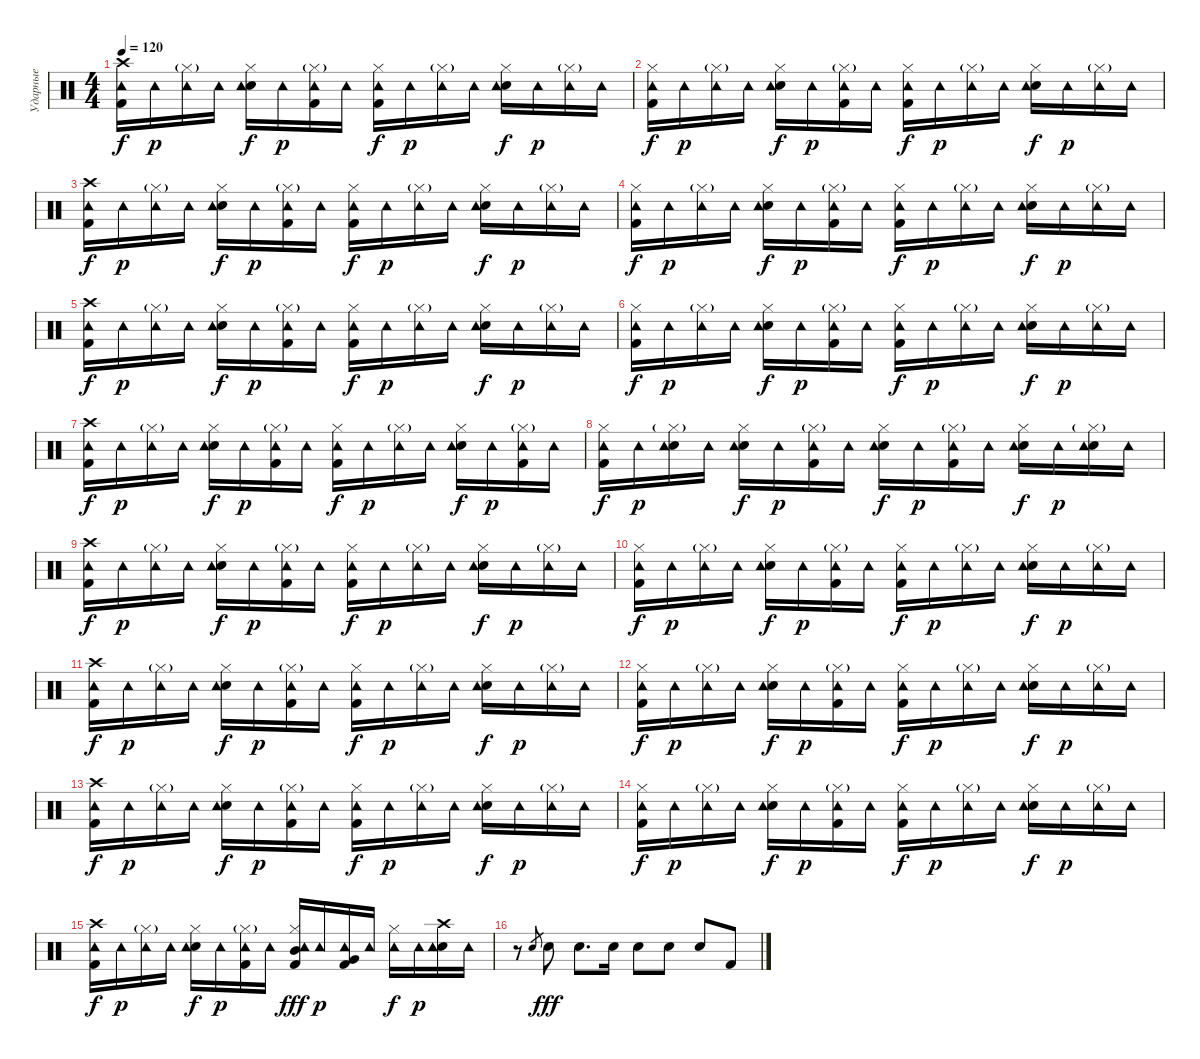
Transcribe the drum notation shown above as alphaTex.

\track ("Ударные" "Ударные") {instrument percussion}
\staff {score}
\articulation defaults
\ts (4 4)
\tempo 120
\clef neutral
\ks c
("Kick (hit) 2" "Crash high (hit)" "Tambourine (hit)").16{dy f} "Tambourine (hit)".16{dy p} ("Hi-Hat (closed)"{g} "Tambourine (hit)").16 "Tambourine (hit)".16 ("Electric Snare (hit)" "Hi-Hat (closed)" "Tambourine (hit)").16{dy f} "Tambourine (hit)".16{dy p} ("Kick (hit) 2" "Hi-Hat (closed)"{g} "Tambourine (hit)").16 "Tambourine (hit)".16 ("Kick (hit) 2" "Hi-Hat (closed)" "Tambourine (hit)").16{dy f} "Tambourine (hit)".16{dy p} ("Hi-Hat (closed)"{g} "Tambourine (hit)").16 "Tambourine (hit)".16 ("Electric Snare (hit)" "Hi-Hat (closed)" "Tambourine (hit)").16{dy f} "Tambourine (hit)".16{dy p} ("Hi-Hat (closed)"{g} "Tambourine (hit)").16 "Tambourine (hit)".16 |
("Kick (hit) 2" "Hi-Hat (closed)" "Tambourine (hit)").16{dy f} "Tambourine (hit)".16{dy p} ("Hi-Hat (closed)"{g} "Tambourine (hit)").16 "Tambourine (hit)".16 ("Electric Snare (hit)" "Hi-Hat (closed)" "Tambourine (hit)").16{dy f} "Tambourine (hit)".16{dy p} ("Kick (hit) 2" "Hi-Hat (closed)"{g} "Tambourine (hit)").16 "Tambourine (hit)".16 ("Kick (hit) 2" "Hi-Hat (closed)" "Tambourine (hit)").16{dy f} "Tambourine (hit)".16{dy p} ("Hi-Hat (closed)"{g} "Tambourine (hit)").16 "Tambourine (hit)".16 ("Electric Snare (hit)" "Hi-Hat (closed)" "Tambourine (hit)").16{dy f} "Tambourine (hit)".16{dy p} ("Hi-Hat (closed)"{g} "Tambourine (hit)").16 "Tambourine (hit)".16 |
("Kick (hit) 2" "Crash high (hit)" "Tambourine (hit)").16{dy f} "Tambourine (hit)".16{dy p} ("Hi-Hat (closed)"{g} "Tambourine (hit)").16 "Tambourine (hit)".16 ("Electric Snare (hit)" "Hi-Hat (closed)" "Tambourine (hit)").16{dy f} "Tambourine (hit)".16{dy p} ("Kick (hit) 2" "Hi-Hat (closed)"{g} "Tambourine (hit)").16 "Tambourine (hit)".16 ("Kick (hit) 2" "Hi-Hat (closed)" "Tambourine (hit)").16{dy f} "Tambourine (hit)".16{dy p} ("Hi-Hat (closed)"{g} "Tambourine (hit)").16 "Tambourine (hit)".16 ("Electric Snare (hit)" "Hi-Hat (closed)" "Tambourine (hit)").16{dy f} "Tambourine (hit)".16{dy p} ("Hi-Hat (closed)"{g} "Tambourine (hit)").16 "Tambourine (hit)".16 |
("Kick (hit) 2" "Hi-Hat (closed)" "Tambourine (hit)").16{dy f} "Tambourine (hit)".16{dy p} ("Hi-Hat (closed)"{g} "Tambourine (hit)").16 "Tambourine (hit)".16 ("Electric Snare (hit)" "Hi-Hat (closed)" "Tambourine (hit)").16{dy f} "Tambourine (hit)".16{dy p} ("Kick (hit) 2" "Hi-Hat (closed)"{g} "Tambourine (hit)").16 "Tambourine (hit)".16 ("Kick (hit) 2" "Hi-Hat (closed)" "Tambourine (hit)").16{dy f} "Tambourine (hit)".16{dy p} ("Hi-Hat (closed)"{g} "Tambourine (hit)").16 "Tambourine (hit)".16 ("Electric Snare (hit)" "Hi-Hat (closed)" "Tambourine (hit)").16{dy f} "Tambourine (hit)".16{dy p} ("Hi-Hat (closed)"{g} "Tambourine (hit)").16 "Tambourine (hit)".16 |
("Kick (hit) 2" "Crash high (hit)" "Tambourine (hit)").16{dy f} "Tambourine (hit)".16{dy p} ("Hi-Hat (closed)"{g} "Tambourine (hit)").16 "Tambourine (hit)".16 ("Electric Snare (hit)" "Hi-Hat (closed)" "Tambourine (hit)").16{dy f} "Tambourine (hit)".16{dy p} ("Kick (hit) 2" "Hi-Hat (closed)"{g} "Tambourine (hit)").16 "Tambourine (hit)".16 ("Kick (hit) 2" "Hi-Hat (closed)" "Tambourine (hit)").16{dy f} "Tambourine (hit)".16{dy p} ("Hi-Hat (closed)"{g} "Tambourine (hit)").16 "Tambourine (hit)".16 ("Electric Snare (hit)" "Hi-Hat (closed)" "Tambourine (hit)").16{dy f} "Tambourine (hit)".16{dy p} ("Hi-Hat (closed)"{g} "Tambourine (hit)").16 "Tambourine (hit)".16 |
("Kick (hit) 2" "Hi-Hat (closed)" "Tambourine (hit)").16{dy f} "Tambourine (hit)".16{dy p} ("Hi-Hat (closed)"{g} "Tambourine (hit)").16 "Tambourine (hit)".16 ("Electric Snare (hit)" "Hi-Hat (closed)" "Tambourine (hit)").16{dy f} "Tambourine (hit)".16{dy p} ("Kick (hit) 2" "Hi-Hat (closed)"{g} "Tambourine (hit)").16 "Tambourine (hit)".16 ("Kick (hit) 2" "Hi-Hat (closed)" "Tambourine (hit)").16{dy f} "Tambourine (hit)".16{dy p} ("Hi-Hat (closed)"{g} "Tambourine (hit)").16 "Tambourine (hit)".16 ("Electric Snare (hit)" "Hi-Hat (closed)" "Tambourine (hit)").16{dy f} "Tambourine (hit)".16{dy p} ("Hi-Hat (closed)"{g} "Tambourine (hit)").16 "Tambourine (hit)".16 |
("Kick (hit) 2" "Crash high (hit)" "Tambourine (hit)").16{dy f} "Tambourine (hit)".16{dy p} ("Hi-Hat (closed)"{g} "Tambourine (hit)").16 "Tambourine (hit)".16 ("Electric Snare (hit)" "Hi-Hat (closed)" "Tambourine (hit)").16{dy f} "Tambourine (hit)".16{dy p} ("Kick (hit) 2" "Hi-Hat (closed)"{g} "Tambourine (hit)").16 "Tambourine (hit)".16 ("Kick (hit) 2" "Hi-Hat (closed)" "Tambourine (hit)").16{dy f} "Tambourine (hit)".16{dy p} ("Hi-Hat (closed)"{g} "Tambourine (hit)").16 "Tambourine (hit)".16 ("Electric Snare (hit)" "Hi-Hat (closed)" "Tambourine (hit)").16{dy f} "Tambourine (hit)".16{dy p} ("Kick (hit) 2" "Hi-Hat (closed)"{g} "Tambourine (hit)").16 "Tambourine (hit)".16 |
("Kick (hit) 2" "Hi-Hat (closed)" "Tambourine (hit)").16{dy f} "Tambourine (hit)".16{dy p} ("Electric Snare (hit)" "Hi-Hat (closed)"{g} "Tambourine (hit)").16 "Tambourine (hit)".16 ("Electric Snare (hit)" "Hi-Hat (closed)" "Tambourine (hit)").16{dy f} "Tambourine (hit)".16{dy p} ("Kick (hit) 2" "Hi-Hat (closed)"{g} "Tambourine (hit)").16 "Tambourine (hit)".16 ("Electric Snare (hit)" "Hi-Hat (closed)" "Tambourine (hit)").16{dy f} "Tambourine (hit)".16{dy p} ("Kick (hit) 2" "Hi-Hat (closed)"{g} "Tambourine (hit)").16 "Tambourine (hit)".16 ("Electric Snare (hit)" "Hi-Hat (closed)" "Tambourine (hit)").16{dy f} "Tambourine (hit)".16{dy p} ("Electric Snare (hit)" "Hi-Hat (closed)"{g} "Tambourine (hit)").16 "Tambourine (hit)".16 |
("Kick (hit) 2" "Crash high (hit)" "Tambourine (hit)").16{dy f} "Tambourine (hit)".16{dy p} ("Hi-Hat (closed)"{g} "Tambourine (hit)").16 "Tambourine (hit)".16 ("Electric Snare (hit)" "Hi-Hat (closed)" "Tambourine (hit)").16{dy f} "Tambourine (hit)".16{dy p} ("Kick (hit) 2" "Hi-Hat (closed)"{g} "Tambourine (hit)").16 "Tambourine (hit)".16 ("Kick (hit) 2" "Hi-Hat (closed)" "Tambourine (hit)").16{dy f} "Tambourine (hit)".16{dy p} ("Hi-Hat (closed)"{g} "Tambourine (hit)").16 "Tambourine (hit)".16 ("Electric Snare (hit)" "Hi-Hat (closed)" "Tambourine (hit)").16{dy f} "Tambourine (hit)".16{dy p} ("Hi-Hat (closed)"{g} "Tambourine (hit)").16 "Tambourine (hit)".16 |
("Kick (hit) 2" "Hi-Hat (closed)" "Tambourine (hit)").16{dy f} "Tambourine (hit)".16{dy p} ("Hi-Hat (closed)"{g} "Tambourine (hit)").16 "Tambourine (hit)".16 ("Electric Snare (hit)" "Hi-Hat (closed)" "Tambourine (hit)").16{dy f} "Tambourine (hit)".16{dy p} ("Kick (hit) 2" "Hi-Hat (closed)"{g} "Tambourine (hit)").16 "Tambourine (hit)".16 ("Kick (hit) 2" "Hi-Hat (closed)" "Tambourine (hit)").16{dy f} "Tambourine (hit)".16{dy p} ("Hi-Hat (closed)"{g} "Tambourine (hit)").16 "Tambourine (hit)".16 ("Electric Snare (hit)" "Hi-Hat (closed)" "Tambourine (hit)").16{dy f} "Tambourine (hit)".16{dy p} ("Hi-Hat (closed)"{g} "Tambourine (hit)").16 "Tambourine (hit)".16 |
("Kick (hit) 2" "Crash high (hit)" "Tambourine (hit)").16{dy f} "Tambourine (hit)".16{dy p} ("Hi-Hat (closed)"{g} "Tambourine (hit)").16 "Tambourine (hit)".16 ("Electric Snare (hit)" "Hi-Hat (closed)" "Tambourine (hit)").16{dy f} "Tambourine (hit)".16{dy p} ("Kick (hit) 2" "Hi-Hat (closed)"{g} "Tambourine (hit)").16 "Tambourine (hit)".16 ("Kick (hit) 2" "Hi-Hat (closed)" "Tambourine (hit)").16{dy f} "Tambourine (hit)".16{dy p} ("Hi-Hat (closed)"{g} "Tambourine (hit)").16 "Tambourine (hit)".16 ("Electric Snare (hit)" "Hi-Hat (closed)" "Tambourine (hit)").16{dy f} "Tambourine (hit)".16{dy p} ("Hi-Hat (closed)"{g} "Tambourine (hit)").16 "Tambourine (hit)".16 |
("Kick (hit) 2" "Hi-Hat (closed)" "Tambourine (hit)").16{dy f} "Tambourine (hit)".16{dy p} ("Hi-Hat (closed)"{g} "Tambourine (hit)").16 "Tambourine (hit)".16 ("Electric Snare (hit)" "Hi-Hat (closed)" "Tambourine (hit)").16{dy f} "Tambourine (hit)".16{dy p} ("Kick (hit) 2" "Hi-Hat (closed)"{g} "Tambourine (hit)").16 "Tambourine (hit)".16 ("Kick (hit) 2" "Hi-Hat (closed)" "Tambourine (hit)").16{dy f} "Tambourine (hit)".16{dy p} ("Hi-Hat (closed)"{g} "Tambourine (hit)").16 "Tambourine (hit)".16 ("Electric Snare (hit)" "Hi-Hat (closed)" "Tambourine (hit)").16{dy f} "Tambourine (hit)".16{dy p} ("Hi-Hat (closed)"{g} "Tambourine (hit)").16 "Tambourine (hit)".16 |
("Kick (hit) 2" "Crash high (hit)" "Tambourine (hit)").16{dy f} "Tambourine (hit)".16{dy p} ("Hi-Hat (closed)"{g} "Tambourine (hit)").16 "Tambourine (hit)".16 ("Electric Snare (hit)" "Hi-Hat (closed)" "Tambourine (hit)").16{dy f} "Tambourine (hit)".16{dy p} ("Kick (hit) 2" "Hi-Hat (closed)"{g} "Tambourine (hit)").16 "Tambourine (hit)".16 ("Kick (hit) 2" "Hi-Hat (closed)" "Tambourine (hit)").16{dy f} "Tambourine (hit)".16{dy p} ("Hi-Hat (closed)"{g} "Tambourine (hit)").16 "Tambourine (hit)".16 ("Electric Snare (hit)" "Hi-Hat (closed)" "Tambourine (hit)").16{dy f} "Tambourine (hit)".16{dy p} ("Hi-Hat (closed)"{g} "Tambourine (hit)").16 "Tambourine (hit)".16 |
("Kick (hit) 2" "Hi-Hat (closed)" "Tambourine (hit)").16{dy f} "Tambourine (hit)".16{dy p} ("Hi-Hat (closed)"{g} "Tambourine (hit)").16 "Tambourine (hit)".16 ("Electric Snare (hit)" "Hi-Hat (closed)" "Tambourine (hit)").16{dy f} "Tambourine (hit)".16{dy p} ("Kick (hit) 2" "Hi-Hat (closed)"{g} "Tambourine (hit)").16 "Tambourine (hit)".16 ("Kick (hit) 2" "Hi-Hat (closed)" "Tambourine (hit)").16{dy f} "Tambourine (hit)".16{dy p} ("Hi-Hat (closed)"{g} "Tambourine (hit)").16 "Tambourine (hit)".16 ("Electric Snare (hit)" "Hi-Hat (closed)" "Tambourine (hit)").16{dy f} "Tambourine (hit)".16{dy p} ("Hi-Hat (closed)"{g} "Tambourine (hit)").16 "Tambourine (hit)".16 |
("Kick (hit) 2" "Crash high (hit)" "Tambourine (hit)").16{dy f} "Tambourine (hit)".16{dy p} ("Hi-Hat (closed)"{g} "Tambourine (hit)").16 "Tambourine (hit)".16 ("Electric Snare (hit)" "Hi-Hat (closed)" "Tambourine (hit)").16{dy f} "Tambourine (hit)".16{dy p} ("Kick (hit) 2" "Hi-Hat (closed)"{g} "Tambourine (hit)").16 "Tambourine (hit)".16 ("Kick (hit) 2" "Hi-Hat (closed)" "Mid Tom (hit)" "Tambourine (hit)").16{dy fff} "Tambourine (hit)".16{dy p} ("Kick (hit) 2" "Very Low Tom (hit)" "Tambourine (hit)").16 "Tambourine (hit)".16 ("Hi-Hat (closed)" "Tambourine (hit)").16{dy f} "Tambourine (hit)".16{dy p} ("Electric Snare (hit)" "Crash high (hit)" "Tambourine (hit)").16 "Tambourine (hit)".16 |
r.8 "Electric Snare (hit)".8{gr} "Electric Snare (hit)".8{dy fff} "Electric Snare (hit)".8{d} "Electric Snare (hit)".16 "Electric Snare (hit)".8 "Electric Snare (hit)".8 "Electric Snare (hit)".8 "Kick (hit) 2".8
